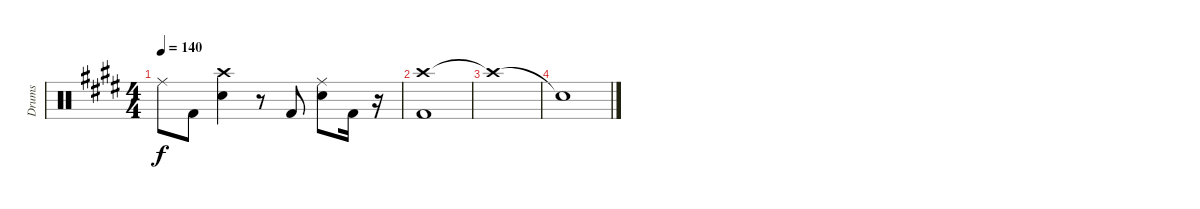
\track ("Drums" "Drums") {instrument percussion}
\staff {score}
\articulation defaults
\ts (4 4)
\tempo 140
\clef neutral
\ks c#minor "Ride (middle)".8{dy f} "Kick (hit) 2".8
("Crash high (hit)" "Snare (hit) 2").4 r.8 "Kick (hit) 2".8 ("Ride (middle)" "Snare (hit) 2").8 "Kick (hit) 2".16 r.16 |
("Crash high (hit)" "Kick (hit) 2").1 |
"Crash high (hit)"{t}.1 |
"Snare (hit)"{t}.1
